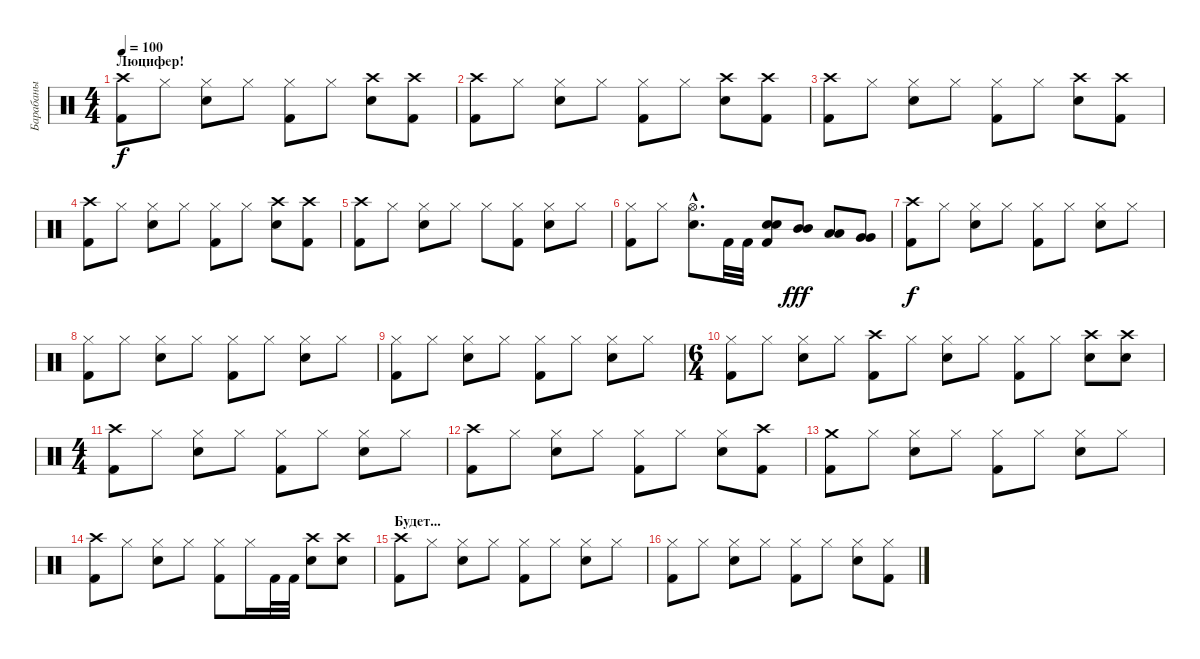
\track ("Барабаны" "Барабаны") {instrument percussion}
\staff {score}
\articulation defaults
\ts (4 4)
\section ("" "Люцифер!")
\tempo 100
\clef neutral
\ks c
("Crash high (hit)" "Kick (hit) 2").8{dy f} "Hi-Hat (closed)".8 ("Hi-Hat (closed)" "Snare (hit) 2").8 "Hi-Hat (closed)".8 ("Hi-Hat (closed)" "Kick (hit) 2").8 "Hi-Hat (closed)".8 ("Crash high (hit)" "Snare (hit) 2").8 ("Crash high (hit)" "Kick (hit) 2").8 |
("Crash high (hit)" "Kick (hit) 2").8 "Hi-Hat (closed)".8 ("Hi-Hat (closed)" "Snare (hit) 2").8 "Hi-Hat (closed)".8 ("Hi-Hat (closed)" "Kick (hit) 2").8 "Hi-Hat (closed)".8 ("Crash high (hit)" "Snare (hit) 2").8 ("Crash high (hit)" "Kick (hit) 2").8 |
("Crash high (hit)" "Kick (hit) 2").8 "Hi-Hat (closed)".8 ("Hi-Hat (closed)" "Snare (hit) 2").8 "Hi-Hat (closed)".8 ("Hi-Hat (closed)" "Kick (hit) 2").8 "Hi-Hat (closed)".8 ("Crash high (hit)" "Snare (hit) 2").8 ("Crash high (hit)" "Kick (hit) 2").8 |
("Crash high (hit)" "Kick (hit) 2").8 "Hi-Hat (closed)".8 ("Hi-Hat (closed)" "Snare (hit) 2").8 "Hi-Hat (closed)".8 ("Hi-Hat (closed)" "Kick (hit) 2").8 "Hi-Hat (closed)".8 ("Crash high (hit)" "Snare (hit) 2").8 ("Crash high (hit)" "Kick (hit) 2").8 |
("Crash high (hit)" "Kick (hit) 2").8 "Hi-Hat (closed)".8 ("Hi-Hat (closed)" "Snare (hit) 2").8 "Hi-Hat (closed)".8 "Hi-Hat (closed)".8 ("Hi-Hat (closed)" "Kick (hit) 2").8 ("Hi-Hat (closed)" "Snare (hit) 2").8 "Hi-Hat (closed)".8 |
("Hi-Hat (closed)" "Kick (hit) 2").8 "Hi-Hat (closed)".8 ("Hi-Hat (open)"{hac} "Snare (hit) 2"{hac}).8{d} "Kick (hit) 2".32 "Kick (hit) 2".32 ("Snare (hit) 2" "Snare (hit) 2" "Kick (hit) 2").8 ("Mid Tom (hit)" "Mid Tom (hit)").8{dy fff} ("Low Tom (hit)" "Low Tom (hit)").8 ("Very Low Tom (hit)" "Very Low Tom (hit)").8 |
("Crash high (hit)" "Kick (hit) 2").8{dy f} "Hi-Hat (closed)".8 ("Hi-Hat (closed)" "Snare (hit) 2").8 "Hi-Hat (closed)".8 ("Hi-Hat (closed)" "Kick (hit) 2").8 "Hi-Hat (closed)".8 ("Hi-Hat (closed)" "Snare (hit) 2").8 "Hi-Hat (closed)".8 |
("Hi-Hat (closed)" "Kick (hit) 2").8 "Hi-Hat (closed)".8 ("Hi-Hat (closed)" "Snare (hit) 2").8 "Hi-Hat (closed)".8 ("Hi-Hat (closed)" "Kick (hit) 2").8 "Hi-Hat (closed)".8 ("Hi-Hat (closed)" "Snare (hit) 2").8 "Hi-Hat (closed)".8 |
("Hi-Hat (closed)" "Kick (hit) 2").8 "Hi-Hat (closed)".8 ("Hi-Hat (closed)" "Snare (hit) 2").8 "Hi-Hat (closed)".8 ("Hi-Hat (closed)" "Kick (hit) 2").8 "Hi-Hat (closed)".8 ("Hi-Hat (closed)" "Snare (hit) 2").8 "Hi-Hat (closed)".8 |
\ts (6 4)
("Hi-Hat (closed)" "Kick (hit) 2").8 "Hi-Hat (closed)".8 ("Hi-Hat (closed)" "Snare (hit) 2").8 "Hi-Hat (closed)".8 ("Crash high (hit)" "Kick (hit) 2").8 "Hi-Hat (closed)".8 ("Hi-Hat (closed)" "Snare (hit) 2").8 "Hi-Hat (closed)".8 ("Hi-Hat (closed)" "Kick (hit) 2").8 "Hi-Hat (closed)".8 ("Crash high (hit)" "Snare (hit) 2").8 ("Crash high (hit)" "Snare (hit) 2").8 |
\ts (4 4)
("Crash high (hit)" "Kick (hit) 2").8 "Hi-Hat (closed)".8 ("Hi-Hat (closed)" "Snare (hit) 2").8 "Hi-Hat (closed)".8 ("Hi-Hat (closed)" "Kick (hit) 2").8 "Hi-Hat (closed)".8 ("Hi-Hat (closed)" "Snare (hit) 2").8 "Hi-Hat (closed)".8 |
("Crash high (hit)" "Kick (hit) 2").8 "Hi-Hat (closed)".8 ("Hi-Hat (closed)" "Snare (hit) 2").8 "Hi-Hat (closed)".8 ("Hi-Hat (closed)" "Kick (hit) 2").8 "Hi-Hat (closed)".8 ("Hi-Hat (closed)" "Snare (hit) 2").8 ("Crash high (hit)" "Kick (hit) 2").8 |
("Crash medium (hit)" "Kick (hit) 2").8 "Hi-Hat (closed)".8 ("Hi-Hat (closed)" "Snare (hit) 2").8 "Hi-Hat (closed)".8 ("Hi-Hat (closed)" "Kick (hit) 2").8 "Hi-Hat (closed)".8 ("Hi-Hat (closed)" "Snare (hit) 2").8 "Hi-Hat (closed)".8 |
("Crash high (hit)" "Kick (hit) 2").8 "Hi-Hat (closed)".8 ("Hi-Hat (closed)" "Snare (hit) 2").8 "Hi-Hat (closed)".8 ("Hi-Hat (closed)" "Kick (hit) 2").8 "Hi-Hat (closed)".16 "Kick (hit) 2".32 "Kick (hit) 2".32 ("Crash high (hit)" "Snare (hit) 2").8 ("Crash high (hit)" "Snare (hit) 2").8 |
\section ("" "Будет...")
("Crash high (hit)" "Kick (hit) 2").8 "Hi-Hat (closed)".8 ("Hi-Hat (closed)" "Snare (hit) 2").8 "Hi-Hat (closed)".8 ("Hi-Hat (closed)" "Kick (hit) 2").8 "Hi-Hat (closed)".8 ("Hi-Hat (closed)" "Snare (hit) 2").8 "Hi-Hat (closed)".8 |
("Hi-Hat (closed)" "Kick (hit) 2").8 "Hi-Hat (closed)".8 ("Hi-Hat (closed)" "Snare (hit) 2").8 "Hi-Hat (closed)".8 ("Hi-Hat (closed)" "Kick (hit) 2").8 "Hi-Hat (closed)".8 ("Hi-Hat (closed)" "Snare (hit) 2").8 ("Hi-Hat (closed)" "Kick (hit) 2").8
